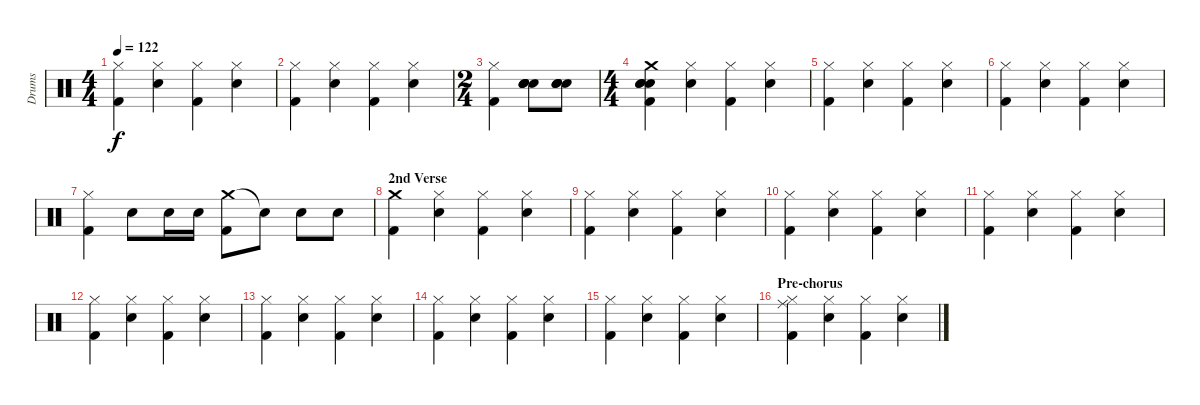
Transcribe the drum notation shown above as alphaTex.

\track ("Drums" "Drums") {instrument percussion}
\staff {score}
\articulation defaults
\ts (4 4)
\tempo 122
\clef neutral
\ks aminor
("Hi-Hat (closed)" "Kick (hit) 2").4{dy f} ("Hi-Hat (closed)" "Snare (hit) 2").4 ("Hi-Hat (closed)" "Kick (hit) 2").4 ("Hi-Hat (closed)" "Snare (hit) 2").4 |
("Hi-Hat (closed)" "Kick (hit) 2").4 ("Hi-Hat (closed)" "Snare (hit) 2").4 ("Hi-Hat (closed)" "Kick (hit) 2").4 ("Hi-Hat (closed)" "Snare (hit) 2").4 |
\ts (2 4)
("Hi-Hat (closed)" "Kick (hit) 2").4 ("Hand Clap (hit)" "Hand Clap (hit)" "Hand Clap (hit)" "Electric Snare (hit)").8 ("Hand Clap (hit)" "Hand Clap (hit)" "Hand Clap (hit)" "Electric Snare (hit)").8 |
\ts (4 4)
("Crash medium (hit)" "Hand Clap (hit)" "Kick (hit) 2" "Hand Clap (hit)" "Hand Clap (hit)").4 ("Hi-Hat (closed)" "Snare (hit) 2").4 ("Hi-Hat (closed)" "Kick (hit) 2").4 ("Hi-Hat (closed)" "Snare (hit) 2").4 |
("Hi-Hat (closed)" "Kick (hit) 2").4 ("Hi-Hat (closed)" "Snare (hit) 2").4 ("Hi-Hat (closed)" "Kick (hit) 2").4 ("Hi-Hat (closed)" "Snare (hit) 2").4 |
("Hi-Hat (closed)" "Kick (hit) 2").4 ("Hi-Hat (closed)" "Snare (hit) 2").4 ("Hi-Hat (closed)" "Kick (hit) 2").4 ("Hi-Hat (closed)" "Snare (hit) 2").4 |
("Hi-Hat (closed)" "Kick (hit) 2").4 "Electric Snare (hit)".8 "Electric Snare (hit)".16 "Electric Snare (hit)".16 ("Crash medium (hit)" "Kick (hit) 2").8 "Electric Snare (hit)"{t}.8 "Electric Snare (hit)".8 "Electric Snare (hit)".8 |
\section ("" "2nd Verse")
("Crash medium (hit)" "Kick (hit) 2").4 ("Hi-Hat (closed)" "Snare (hit) 2").4 ("Hi-Hat (closed)" "Kick (hit) 2").4 ("Hi-Hat (closed)" "Snare (hit) 2").4 |
("Hi-Hat (closed)" "Kick (hit) 2").4 ("Hi-Hat (closed)" "Snare (hit) 2").4 ("Hi-Hat (closed)" "Kick (hit) 2").4 ("Hi-Hat (closed)" "Snare (hit) 2").4 |
("Hi-Hat (closed)" "Kick (hit) 2").4 ("Hi-Hat (closed)" "Snare (hit) 2").4 ("Hi-Hat (closed)" "Kick (hit) 2").4 ("Hi-Hat (closed)" "Snare (hit) 2").4 |
("Hi-Hat (closed)" "Kick (hit) 2").4 ("Hi-Hat (closed)" "Snare (hit) 2").4 ("Hi-Hat (closed)" "Kick (hit) 2").4 ("Hi-Hat (closed)" "Snare (hit) 2").4 |
("Hi-Hat (closed)" "Kick (hit) 2").4 ("Hi-Hat (closed)" "Snare (hit) 2").4 ("Hi-Hat (closed)" "Kick (hit) 2").4 ("Hi-Hat (closed)" "Snare (hit) 2").4 |
("Hi-Hat (closed)" "Kick (hit) 2").4 ("Hi-Hat (closed)" "Snare (hit) 2").4 ("Hi-Hat (closed)" "Kick (hit) 2").4 ("Hi-Hat (closed)" "Snare (hit) 2").4 |
("Hi-Hat (closed)" "Kick (hit) 2").4 ("Hi-Hat (closed)" "Snare (hit) 2").4 ("Hi-Hat (closed)" "Kick (hit) 2").4 ("Hi-Hat (closed)" "Snare (hit) 2").4 |
("Hi-Hat (closed)" "Kick (hit) 2").4 ("Hi-Hat (closed)" "Snare (hit) 2").4 ("Hi-Hat (closed)" "Kick (hit) 2").4 ("Hi-Hat (closed)" "Snare (hit) 2").4 |
\section ("" "Pre-chorus")
("Ride (middle)" "Hi-Hat (closed)" "Kick (hit) 2").4 ("Hi-Hat (closed)" "Snare (hit) 2").4 ("Hi-Hat (closed)" "Kick (hit) 2").4 ("Hi-Hat (closed)" "Snare (hit) 2").4
